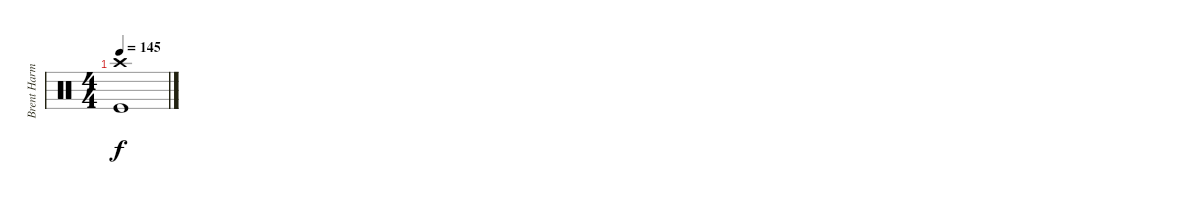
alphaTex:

\track ("Brent Harman" "Brent Harm") {instrument percussion}
\staff {score}
\articulation defaults
\ts (4 4)
\tempo 145
\clef neutral
\ks c
("Crash high (hit)" "Kick (hit)").1{dy f}
